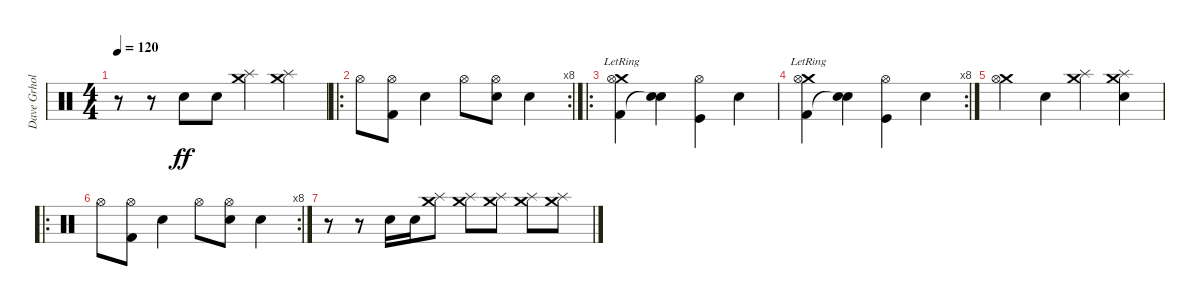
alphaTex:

\track ("Dave Grhol" "Dave Grhol") {instrument percussion}
\staff {score}
\articulation defaults
\ts (4 4)
\tempo 120
\clef neutral
\ks c
r.8{dy mf} r.8 "Snare (hit) 2".8{dy ff} "Snare (hit) 2".8 ("Crash medium (hit)" "Splash (hit)").4 ("Crash medium (hit)" "Splash (hit)").4 |
\ro
\rc 8 "Hi-Hat (open)".8
("Hi-Hat (open)" "Kick (hit) 2").8 "Snare (hit) 2".4 "Hi-Hat (open)".8 ("Hi-Hat (open)" "Snare (hit) 2").8 "Snare (hit) 2".4 |
\ro
("Kick (hit) 2" "Crash medium (hit)"{lr} "Hi-Hat (open)").4 ("Snare (hit)"{t} "Snare (hit) 2").4 ("Kick (hit)" "Hi-Hat (open)").4 "Snare (hit) 2".4 |
\rc 8
("Kick (hit) 2" "Crash medium (hit)"{lr} "Hi-Hat (open)").4 ("Snare (hit)"{t} "Snare (hit) 2").4 ("Kick (hit)" "Hi-Hat (open)").4 "Snare (hit) 2".4 |
("Crash medium (hit)" "Hi-Hat (open)").4 "Snare (hit) 2".4 ("Crash medium (hit)" "Splash (hit)").4 ("Crash medium (hit)" "Splash (hit)" "Snare (hit) 2").4 |
\ro
\rc 8 "Hi-Hat (open)".8
("Hi-Hat (open)" "Kick (hit) 2").8 "Snare (hit) 2".4 "Hi-Hat (open)".8 ("Hi-Hat (open)" "Snare (hit) 2").8 "Snare (hit) 2".4 |
r.8 r.8 "Snare (hit) 2".16 "Snare (hit) 2".16 ("Splash (hit)" "Crash medium (hit)").8 ("Splash (hit)" "Crash medium (hit)").8 ("Splash (hit)" "Crash medium (hit)").8 ("Splash (hit)" "Crash medium (hit)").8 ("Splash (hit)" "Crash medium (hit)").8
